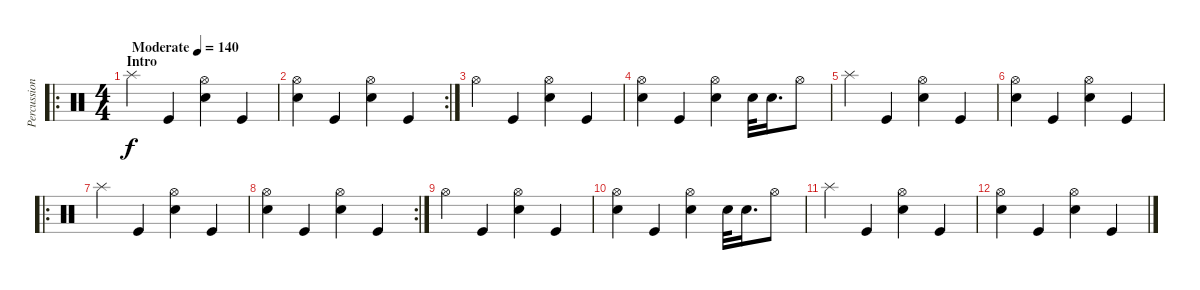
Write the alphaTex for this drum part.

\track ("Percussion" "Percussion") {instrument percussion}
\staff {score}
\articulation defaults
\ro
\ts (4 4)
\section ("" "Intro")
\tempo (140 "Moderate")
\clef neutral
\ks c "Splash (hit)".4{dy f} "Kick (hit)".4
("Snare (hit) 2" "Hi-Hat (open)").4 "Kick (hit)".4 |
\rc 2
("Snare (hit) 2" "Hi-Hat (open)").4 "Kick (hit)".4 ("Snare (hit) 2" "Hi-Hat (open)").4 "Kick (hit)".4 |
"Hi-Hat (open)".4 "Kick (hit)".4 ("Snare (hit) 2" "Hi-Hat (open)").4 "Kick (hit)".4 |
("Snare (hit) 2" "Hi-Hat (open)").4 "Kick (hit)".4 ("Snare (hit) 2" "Hi-Hat (open)").4 "Snare (hit) 2".32 "Snare (hit) 2".16{d} "Hi-Hat (open)".8 |
"Splash (hit)".4 "Kick (hit)".4 ("Snare (hit) 2" "Hi-Hat (open)").4 "Kick (hit)".4 |
("Snare (hit) 2" "Hi-Hat (open)").4 "Kick (hit)".4 ("Snare (hit) 2" "Hi-Hat (open)").4 "Kick (hit)".4 |
\ro "Splash (hit)".4 "Kick (hit)".4
("Snare (hit) 2" "Hi-Hat (open)").4 "Kick (hit)".4 |
\rc 2
("Snare (hit) 2" "Hi-Hat (open)").4 "Kick (hit)".4 ("Snare (hit) 2" "Hi-Hat (open)").4 "Kick (hit)".4 |
"Hi-Hat (open)".4 "Kick (hit)".4 ("Snare (hit) 2" "Hi-Hat (open)").4 "Kick (hit)".4 |
("Snare (hit) 2" "Hi-Hat (open)").4 "Kick (hit)".4 ("Snare (hit) 2" "Hi-Hat (open)").4 "Snare (hit) 2".32 "Snare (hit) 2".16{d} "Hi-Hat (open)".8 |
"Splash (hit)".4 "Kick (hit)".4 ("Snare (hit) 2" "Hi-Hat (open)").4 "Kick (hit)".4 |
("Snare (hit) 2" "Hi-Hat (open)").4 "Kick (hit)".4 ("Snare (hit) 2" "Hi-Hat (open)").4 "Kick (hit)".4
